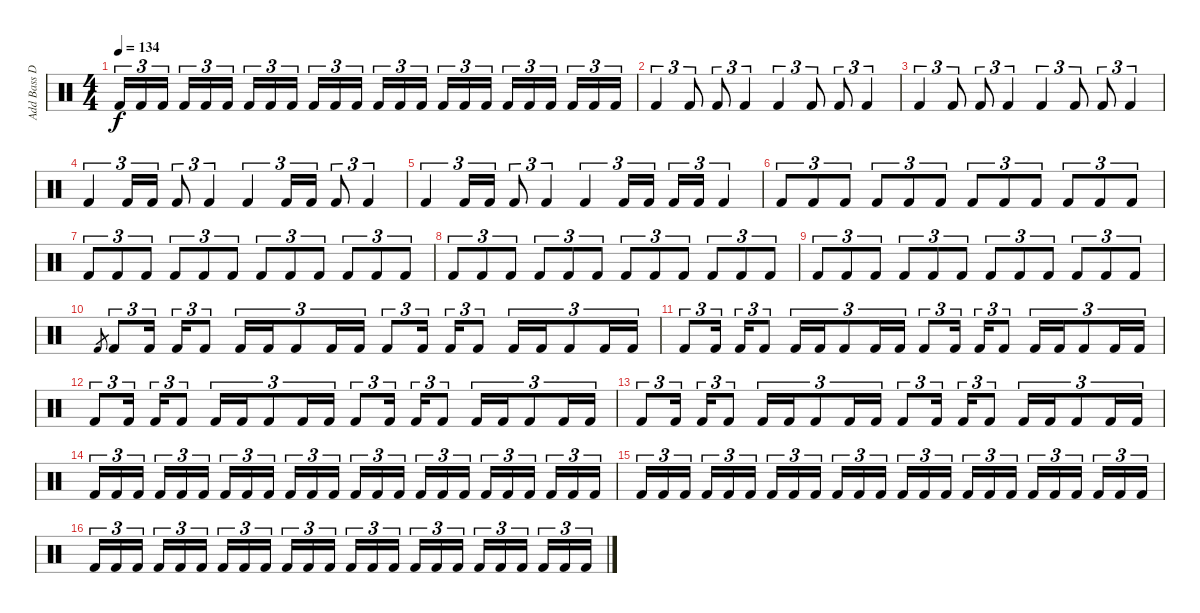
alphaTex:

\track ("Add Bass Drum" "Add Bass D") {instrument percussion}
\staff {score}
\articulation defaults
\ts (4 4)
\tempo 134
\clef neutral
\ks c "Kick (hit) 2".16{tu (3 2) dy f} "Kick (hit) 2".16{tu (3 2)} "Kick (hit) 2".16{tu (3 2)} "Kick (hit) 2".16{tu (3 2)} "Kick (hit) 2".16{tu (3 2)} "Kick (hit) 2".16{tu (3 2)} "Kick (hit) 2".16{tu (3 2)} "Kick (hit) 2".16{tu (3 2)} "Kick (hit) 2".16{tu (3 2)} "Kick (hit) 2".16{tu (3 2)} "Kick (hit) 2".16{tu (3 2)} "Kick (hit) 2".16{tu (3 2)} "Kick (hit) 2".16{tu (3 2)} "Kick (hit) 2".16{tu (3 2)} "Kick (hit) 2".16{tu (3 2)} "Kick (hit) 2".16{tu (3 2)} "Kick (hit) 2".16{tu (3 2)} "Kick (hit) 2".16{tu (3 2)} "Kick (hit) 2".16{tu (3 2)} "Kick (hit) 2".16{tu (3 2)} "Kick (hit) 2".16{tu (3 2)} "Kick (hit) 2".16{tu (3 2)} "Kick (hit) 2".16{tu (3 2)} "Kick (hit) 2".16{tu (3 2)}
|
"Kick (hit) 2".4{tu (3 2)} "Kick (hit) 2".8{tu (3 2)} "Kick (hit) 2".8{tu (3 2)} "Kick (hit) 2".4{tu (3 2)} "Kick (hit) 2".4{tu (3 2)} "Kick (hit) 2".8{tu (3 2)} "Kick (hit) 2".8{tu (3 2)} "Kick (hit) 2".4{tu (3 2)} |
"Kick (hit) 2".4{tu (3 2)} "Kick (hit) 2".8{tu (3 2)} "Kick (hit) 2".8{tu (3 2)} "Kick (hit) 2".4{tu (3 2)} "Kick (hit) 2".4{tu (3 2)} "Kick (hit) 2".8{tu (3 2)} "Kick (hit) 2".8{tu (3 2)} "Kick (hit) 2".4{tu (3 2)} |
"Kick (hit) 2".4{tu (3 2)} "Kick (hit) 2".16{tu (3 2)} "Kick (hit) 2".16{tu (3 2)} "Kick (hit) 2".8{tu (3 2)} "Kick (hit) 2".4{tu (3 2)} "Kick (hit) 2".4{tu (3 2)} "Kick (hit) 2".16{tu (3 2)} "Kick (hit) 2".16{tu (3 2)} "Kick (hit) 2".8{tu (3 2)} "Kick (hit) 2".4{tu (3 2)} |
"Kick (hit) 2".4{tu (3 2)} "Kick (hit) 2".16{tu (3 2)} "Kick (hit) 2".16{tu (3 2)} "Kick (hit) 2".8{tu (3 2)} "Kick (hit) 2".4{tu (3 2)} "Kick (hit) 2".4{tu (3 2)} "Kick (hit) 2".16{tu (3 2)} "Kick (hit) 2".16{tu (3 2)} "Kick (hit) 2".16{tu (3 2)} "Kick (hit) 2".16{tu (3 2)} "Kick (hit) 2".4{tu (3 2)} |
"Kick (hit) 2".8{tu (3 2)} "Kick (hit) 2".8{tu (3 2)} "Kick (hit) 2".8{tu (3 2)} "Kick (hit) 2".8{tu (3 2)} "Kick (hit) 2".8{tu (3 2)} "Kick (hit) 2".8{tu (3 2)} "Kick (hit) 2".8{tu (3 2)} "Kick (hit) 2".8{tu (3 2)} "Kick (hit) 2".8{tu (3 2)} "Kick (hit) 2".8{tu (3 2)} "Kick (hit) 2".8{tu (3 2)} "Kick (hit) 2".8{tu (3 2)} |
"Kick (hit) 2".8{tu (3 2)} "Kick (hit) 2".8{tu (3 2)} "Kick (hit) 2".8{tu (3 2)} "Kick (hit) 2".8{tu (3 2)} "Kick (hit) 2".8{tu (3 2)} "Kick (hit) 2".8{tu (3 2)} "Kick (hit) 2".8{tu (3 2)} "Kick (hit) 2".8{tu (3 2)} "Kick (hit) 2".8{tu (3 2)} "Kick (hit) 2".8{tu (3 2)} "Kick (hit) 2".8{tu (3 2)} "Kick (hit) 2".8{tu (3 2)} |
"Kick (hit) 2".8{tu (3 2)} "Kick (hit) 2".8{tu (3 2)} "Kick (hit) 2".8{tu (3 2)} "Kick (hit) 2".8{tu (3 2)} "Kick (hit) 2".8{tu (3 2)} "Kick (hit) 2".8{tu (3 2)} "Kick (hit) 2".8{tu (3 2)} "Kick (hit) 2".8{tu (3 2)} "Kick (hit) 2".8{tu (3 2)} "Kick (hit) 2".8{tu (3 2)} "Kick (hit) 2".8{tu (3 2)} "Kick (hit) 2".8{tu (3 2)} |
"Kick (hit) 2".8{tu (3 2)} "Kick (hit) 2".8{tu (3 2)} "Kick (hit) 2".8{tu (3 2)} "Kick (hit) 2".8{tu (3 2)} "Kick (hit) 2".8{tu (3 2)} "Kick (hit) 2".8{tu (3 2)} "Kick (hit) 2".8{tu (3 2)} "Kick (hit) 2".8{tu (3 2)} "Kick (hit) 2".8{tu (3 2)} "Kick (hit) 2".8{tu (3 2)} "Kick (hit) 2".8{tu (3 2)} "Kick (hit) 2".8{tu (3 2)} |
"Kick (hit) 2".8{gr} "Kick (hit) 2".8{tu (3 2)} "Kick (hit) 2".16{tu (3 2)} "Kick (hit) 2".16{tu (3 2)} "Kick (hit) 2".8{tu (3 2)} "Kick (hit) 2".16{tu (3 2)} "Kick (hit) 2".16{tu (3 2)} "Kick (hit) 2".8{tu (3 2)} "Kick (hit) 2".16{tu (3 2)} "Kick (hit) 2".16{tu (3 2)} "Kick (hit) 2".8{tu (3 2)} "Kick (hit) 2".16{tu (3 2)} "Kick (hit) 2".16{tu (3 2)} "Kick (hit) 2".8{tu (3 2)} "Kick (hit) 2".16{tu (3 2)} "Kick (hit) 2".16{tu (3 2)} "Kick (hit) 2".8{tu (3 2)} "Kick (hit) 2".16{tu (3 2)} "Kick (hit) 2".16{tu (3 2)} |
"Kick (hit) 2".8{tu (3 2)} "Kick (hit) 2".16{tu (3 2)} "Kick (hit) 2".16{tu (3 2)} "Kick (hit) 2".8{tu (3 2)} "Kick (hit) 2".16{tu (3 2)} "Kick (hit) 2".16{tu (3 2)} "Kick (hit) 2".8{tu (3 2)} "Kick (hit) 2".16{tu (3 2)} "Kick (hit) 2".16{tu (3 2)} "Kick (hit) 2".8{tu (3 2)} "Kick (hit) 2".16{tu (3 2)} "Kick (hit) 2".16{tu (3 2)} "Kick (hit) 2".8{tu (3 2)} "Kick (hit) 2".16{tu (3 2)} "Kick (hit) 2".16{tu (3 2)} "Kick (hit) 2".8{tu (3 2)} "Kick (hit) 2".16{tu (3 2)} "Kick (hit) 2".16{tu (3 2)} |
"Kick (hit) 2".8{tu (3 2)} "Kick (hit) 2".16{tu (3 2)} "Kick (hit) 2".16{tu (3 2)} "Kick (hit) 2".8{tu (3 2)} "Kick (hit) 2".16{tu (3 2)} "Kick (hit) 2".16{tu (3 2)} "Kick (hit) 2".8{tu (3 2)} "Kick (hit) 2".16{tu (3 2)} "Kick (hit) 2".16{tu (3 2)} "Kick (hit) 2".8{tu (3 2)} "Kick (hit) 2".16{tu (3 2)} "Kick (hit) 2".16{tu (3 2)} "Kick (hit) 2".8{tu (3 2)} "Kick (hit) 2".16{tu (3 2)} "Kick (hit) 2".16{tu (3 2)} "Kick (hit) 2".8{tu (3 2)} "Kick (hit) 2".16{tu (3 2)} "Kick (hit) 2".16{tu (3 2)} |
"Kick (hit) 2".8{tu (3 2)} "Kick (hit) 2".16{tu (3 2)} "Kick (hit) 2".16{tu (3 2)} "Kick (hit) 2".8{tu (3 2)} "Kick (hit) 2".16{tu (3 2)} "Kick (hit) 2".16{tu (3 2)} "Kick (hit) 2".8{tu (3 2)} "Kick (hit) 2".16{tu (3 2)} "Kick (hit) 2".16{tu (3 2)} "Kick (hit) 2".8{tu (3 2)} "Kick (hit) 2".16{tu (3 2)} "Kick (hit) 2".16{tu (3 2)} "Kick (hit) 2".8{tu (3 2)} "Kick (hit) 2".16{tu (3 2)} "Kick (hit) 2".16{tu (3 2)} "Kick (hit) 2".8{tu (3 2)} "Kick (hit) 2".16{tu (3 2)} "Kick (hit) 2".16{tu (3 2)} |
"Kick (hit) 2".16{tu (3 2)} "Kick (hit) 2".16{tu (3 2)} "Kick (hit) 2".16{tu (3 2)} "Kick (hit) 2".16{tu (3 2)} "Kick (hit) 2".16{tu (3 2)} "Kick (hit) 2".16{tu (3 2)} "Kick (hit) 2".16{tu (3 2)} "Kick (hit) 2".16{tu (3 2)} "Kick (hit) 2".16{tu (3 2)} "Kick (hit) 2".16{tu (3 2)} "Kick (hit) 2".16{tu (3 2)} "Kick (hit) 2".16{tu (3 2)} "Kick (hit) 2".16{tu (3 2)} "Kick (hit) 2".16{tu (3 2)} "Kick (hit) 2".16{tu (3 2)} "Kick (hit) 2".16{tu (3 2)} "Kick (hit) 2".16{tu (3 2)} "Kick (hit) 2".16{tu (3 2)} "Kick (hit) 2".16{tu (3 2)} "Kick (hit) 2".16{tu (3 2)} "Kick (hit) 2".16{tu (3 2)} "Kick (hit) 2".16{tu (3 2)} "Kick (hit) 2".16{tu (3 2)} "Kick (hit) 2".16{tu (3 2)} |
"Kick (hit) 2".16{tu (3 2)} "Kick (hit) 2".16{tu (3 2)} "Kick (hit) 2".16{tu (3 2)} "Kick (hit) 2".16{tu (3 2)} "Kick (hit) 2".16{tu (3 2)} "Kick (hit) 2".16{tu (3 2)} "Kick (hit) 2".16{tu (3 2)} "Kick (hit) 2".16{tu (3 2)} "Kick (hit) 2".16{tu (3 2)} "Kick (hit) 2".16{tu (3 2)} "Kick (hit) 2".16{tu (3 2)} "Kick (hit) 2".16{tu (3 2)} "Kick (hit) 2".16{tu (3 2)} "Kick (hit) 2".16{tu (3 2)} "Kick (hit) 2".16{tu (3 2)} "Kick (hit) 2".16{tu (3 2)} "Kick (hit) 2".16{tu (3 2)} "Kick (hit) 2".16{tu (3 2)} "Kick (hit) 2".16{tu (3 2)} "Kick (hit) 2".16{tu (3 2)} "Kick (hit) 2".16{tu (3 2)} "Kick (hit) 2".16{tu (3 2)} "Kick (hit) 2".16{tu (3 2)} "Kick (hit) 2".16{tu (3 2)} |
"Kick (hit) 2".16{tu (3 2)} "Kick (hit) 2".16{tu (3 2)} "Kick (hit) 2".16{tu (3 2)} "Kick (hit) 2".16{tu (3 2)} "Kick (hit) 2".16{tu (3 2)} "Kick (hit) 2".16{tu (3 2)} "Kick (hit) 2".16{tu (3 2)} "Kick (hit) 2".16{tu (3 2)} "Kick (hit) 2".16{tu (3 2)} "Kick (hit) 2".16{tu (3 2)} "Kick (hit) 2".16{tu (3 2)} "Kick (hit) 2".16{tu (3 2)} "Kick (hit) 2".16{tu (3 2)} "Kick (hit) 2".16{tu (3 2)} "Kick (hit) 2".16{tu (3 2)} "Kick (hit) 2".16{tu (3 2)} "Kick (hit) 2".16{tu (3 2)} "Kick (hit) 2".16{tu (3 2)} "Kick (hit) 2".16{tu (3 2)} "Kick (hit) 2".16{tu (3 2)} "Kick (hit) 2".16{tu (3 2)} "Kick (hit) 2".16{tu (3 2)} "Kick (hit) 2".16{tu (3 2)} "Kick (hit) 2".16{tu (3 2)}
